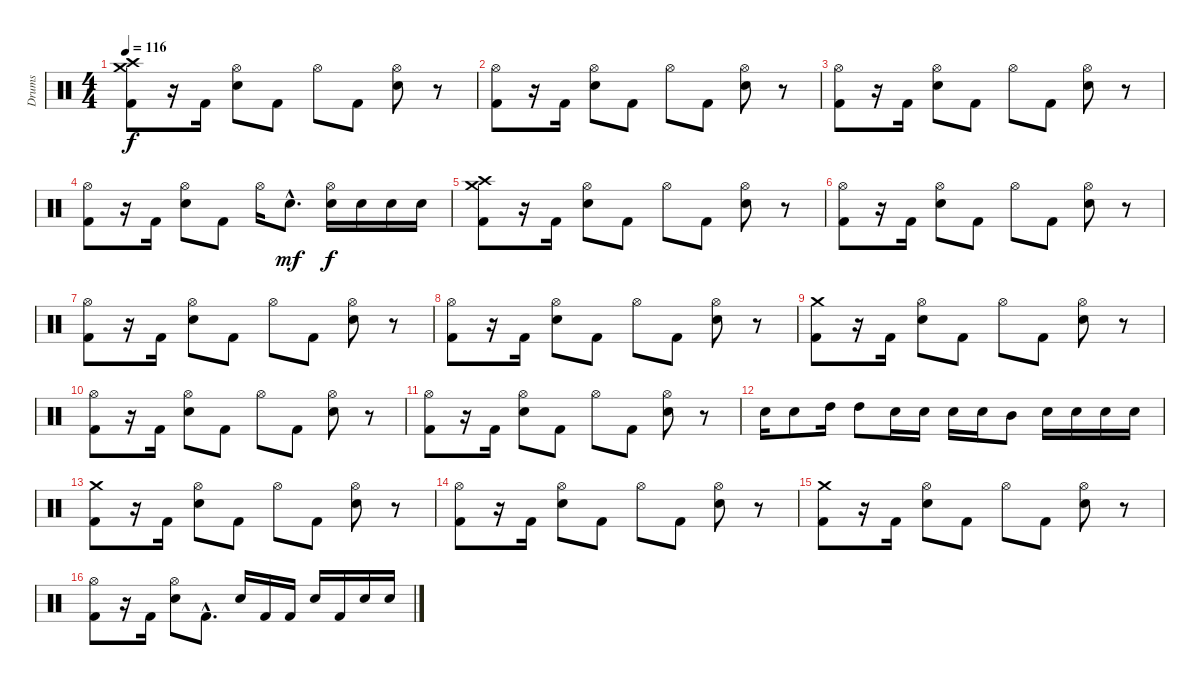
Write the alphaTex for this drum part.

\track ("Drums" "Drums") {instrument percussion}
\staff {score}
\articulation defaults
\ts (4 4)
\tempo 116
\clef neutral
\ks c
("Crash medium (hit)" "Crash high (hit)" "Kick (hit) 2").8{dy f} r.16 "Kick (hit) 2".16 ("Hi-Hat (open)" "Electric Snare (hit)").8 "Kick (hit) 2".8 "Hi-Hat (open)".8 "Kick (hit) 2".8 ("Hi-Hat (open)" "Electric Snare (hit)").8 r.8 |
("Hi-Hat (open)" "Kick (hit) 2").8 r.16 "Kick (hit) 2".16 ("Hi-Hat (open)" "Electric Snare (hit)").8 "Kick (hit) 2".8 "Hi-Hat (open)".8 "Kick (hit) 2".8 ("Hi-Hat (open)" "Electric Snare (hit)").8 r.8 |
("Hi-Hat (open)" "Kick (hit) 2").8 r.16 "Kick (hit) 2".16 ("Hi-Hat (open)" "Electric Snare (hit)").8 "Kick (hit) 2".8 "Hi-Hat (open)".8 "Kick (hit) 2".8 ("Hi-Hat (open)" "Electric Snare (hit)").8 r.8 |
("Hi-Hat (open)" "Kick (hit) 2").8 r.16 "Kick (hit) 2".16 ("Hi-Hat (open)" "Electric Snare (hit)").8 "Kick (hit) 2".8 "Hi-Hat (open)".16 "Electric Snare (hit)"{hac}.8{d dy mf} ("Hi-Hat (open)" "Electric Snare (hit)").16{dy f} "Electric Snare (hit)".16 "Electric Snare (hit)".16 "Electric Snare (hit)".16 |
("Crash medium (hit)" "Crash high (hit)" "Kick (hit) 2").8 r.16 "Kick (hit) 2".16 ("Hi-Hat (open)" "Electric Snare (hit)").8 "Kick (hit) 2".8 "Hi-Hat (open)".8 "Kick (hit) 2".8 ("Hi-Hat (open)" "Electric Snare (hit)").8 r.8 |
("Hi-Hat (open)" "Kick (hit) 2").8 r.16 "Kick (hit) 2".16 ("Hi-Hat (open)" "Electric Snare (hit)").8 "Kick (hit) 2".8 "Hi-Hat (open)".8 "Kick (hit) 2".8 ("Hi-Hat (open)" "Electric Snare (hit)").8 r.8 |
("Hi-Hat (open)" "Kick (hit) 2").8 r.16 "Kick (hit) 2".16 ("Hi-Hat (open)" "Electric Snare (hit)").8 "Kick (hit) 2".8 "Hi-Hat (open)".8 "Kick (hit) 2".8 ("Hi-Hat (open)" "Electric Snare (hit)").8 r.8 |
("Hi-Hat (open)" "Kick (hit) 2").8 r.16 "Kick (hit) 2".16 ("Hi-Hat (open)" "Electric Snare (hit)").8 "Kick (hit) 2".8 "Hi-Hat (open)".8 "Kick (hit) 2".8 ("Hi-Hat (open)" "Electric Snare (hit)").8 r.8 |
("Crash medium (hit)" "Kick (hit) 2").8 r.16 "Kick (hit) 2".16 ("Hi-Hat (open)" "Electric Snare (hit)").8 "Kick (hit) 2".8 "Hi-Hat (open)".8 "Kick (hit) 2".8 ("Hi-Hat (open)" "Electric Snare (hit)").8 r.8 |
("Hi-Hat (open)" "Kick (hit) 2").8 r.16 "Kick (hit) 2".16 ("Hi-Hat (open)" "Electric Snare (hit)").8 "Kick (hit) 2".8 "Hi-Hat (open)".8 "Kick (hit) 2".8 ("Hi-Hat (open)" "Electric Snare (hit)").8 r.8 |
("Hi-Hat (open)" "Kick (hit) 2").8 r.16 "Kick (hit) 2".16 ("Hi-Hat (open)" "Electric Snare (hit)").8 "Kick (hit) 2".8 "Hi-Hat (open)".8 "Kick (hit) 2".8 ("Hi-Hat (open)" "Electric Snare (hit)").8 r.8 |
"Electric Snare (hit)".16 "Electric Snare (hit)".8 "High Tom (hit)".16 "High Tom (hit)".8 "Electric Snare (hit)".16 "Electric Snare (hit)".16 "Electric Snare (hit)".16 "Electric Snare (hit)".16 "Mid Tom (hit)".8 "Electric Snare (hit)".16 "Electric Snare (hit)".16 "Electric Snare (hit)".16 "Electric Snare (hit)".16 |
("Crash medium (hit)" "Kick (hit) 2").8 r.16 "Kick (hit) 2".16 ("Hi-Hat (open)" "Electric Snare (hit)").8 "Kick (hit) 2".8 "Hi-Hat (open)".8 "Kick (hit) 2".8 ("Hi-Hat (open)" "Electric Snare (hit)").8 r.8 |
("Hi-Hat (open)" "Kick (hit) 2").8 r.16 "Kick (hit) 2".16 ("Hi-Hat (open)" "Electric Snare (hit)").8 "Kick (hit) 2".8 "Hi-Hat (open)".8 "Kick (hit) 2".8 ("Hi-Hat (open)" "Electric Snare (hit)").8 r.8 |
("Crash medium (hit)" "Kick (hit) 2").8 r.16 "Kick (hit) 2".16 ("Hi-Hat (open)" "Electric Snare (hit)").8 "Kick (hit) 2".8 "Hi-Hat (open)".8 "Kick (hit) 2".8 ("Hi-Hat (open)" "Electric Snare (hit)").8 r.8 |
("Hi-Hat (open)" "Kick (hit) 2").8 r.16 "Kick (hit) 2".16 ("Hi-Hat (open)" "Electric Snare (hit)").8 "Kick (hit) 2"{hac}.8{d} "Electric Snare (hit)".16 "Kick (hit) 2".16 "Kick (hit) 2".16 "Electric Snare (hit)".16 "Kick (hit) 2".16 "Electric Snare (hit)".16 "Electric Snare (hit)".16
